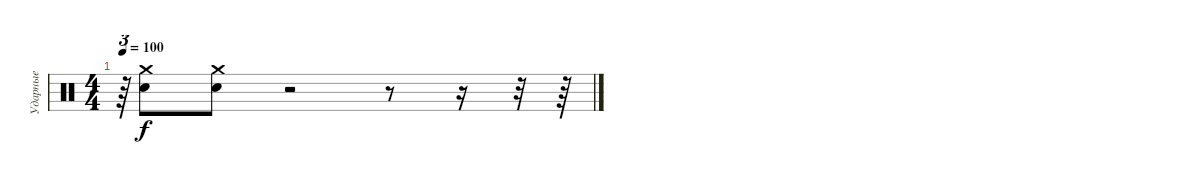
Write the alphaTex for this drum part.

\track ("Ударные" "Ударные") {instrument percussion}
\staff {score}
\articulation defaults
\ts (4 4)
\tempo 100
\clef neutral
\ks c
r.64{tu (3 2) dy f} ("Crash medium (hit)" "Snare (hit) 2").8 ("Crash medium (hit)" "Snare (hit) 2").8 r.2 r.8 r.16 r.32 r.64
